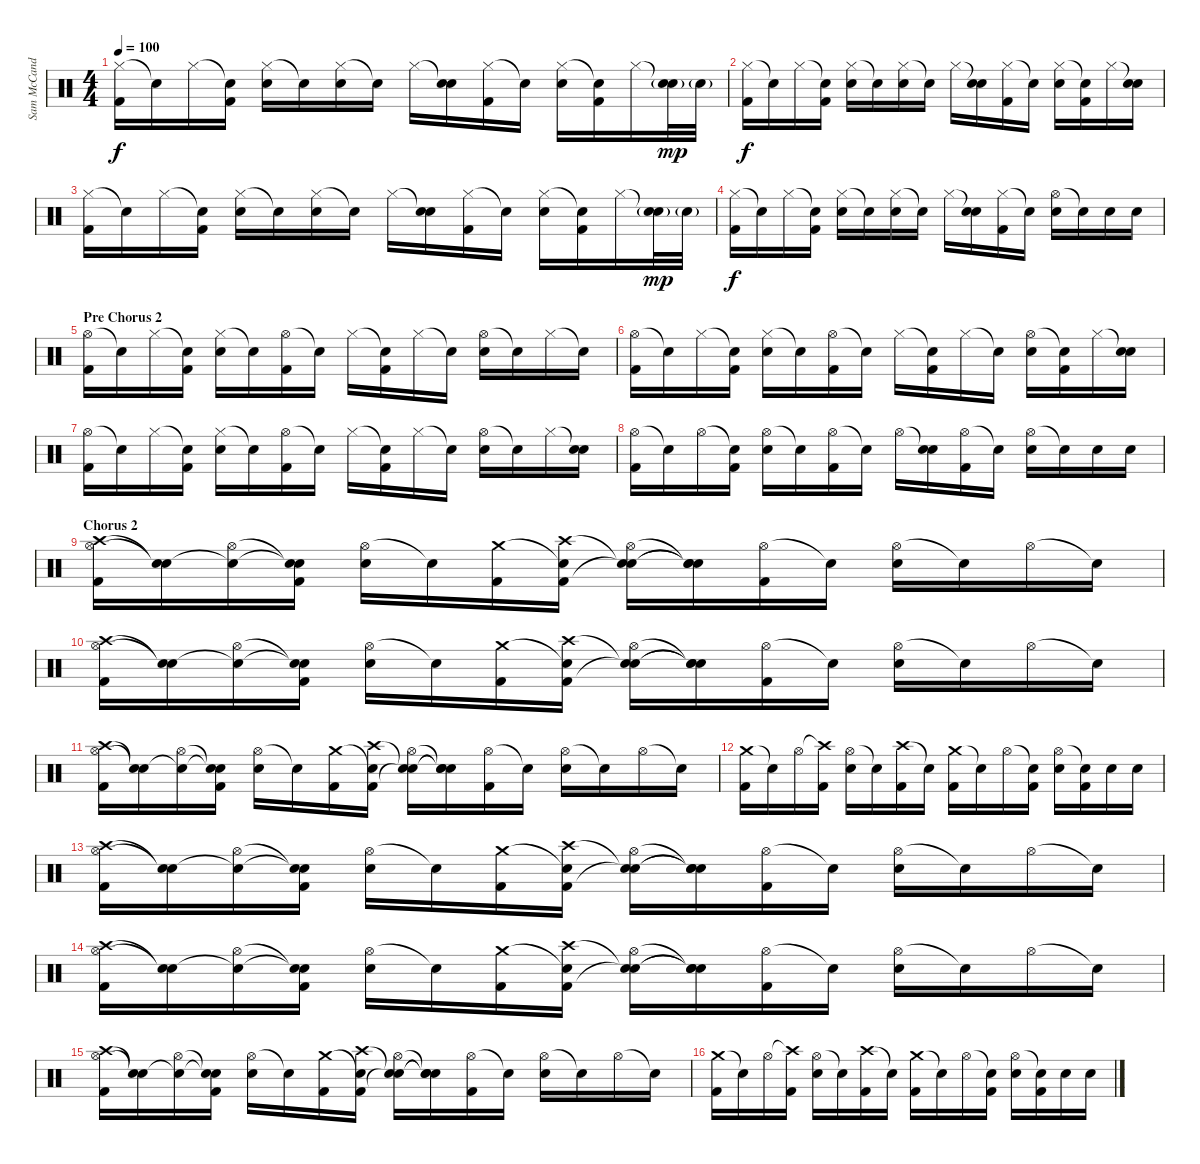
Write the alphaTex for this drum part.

\track ("Sam McCandless (Drums)" "Sam McCand") {instrument percussion}
\staff {score}
\articulation defaults
\ts (4 4)
\tempo 100
\clef neutral
\ks c
("Hi-Hat (closed)" "Kick (hit) 2").16{dy f} "Snare (hit)"{t}.16 "Hi-Hat (closed)".16 ("Snare (hit)"{t} "Kick (hit) 2").16 ("Hi-Hat (closed)" "Electric Snare (hit)").16 "Snare (hit)"{t}.16 ("Hi-Hat (closed)" "Electric Snare (hit)").16 "Snare (hit)"{t}.16 "Hi-Hat (closed)".16 ("Snare (hit)"{t} "Electric Snare (hit)").16 ("Hi-Hat (closed)" "Kick (hit) 2").16 "Snare (hit)"{t}.16 ("Hi-Hat (closed)" "Electric Snare (hit)").16 ("Snare (hit)"{t} "Kick (hit) 2").16 "Hi-Hat (closed)".16 ("Snare (hit)"{t} "Electric Snare (hit)"{g}).32{dy mp} "Electric Snare (hit)"{g}.32 |
("Hi-Hat (closed)" "Kick (hit) 2").16{dy f} "Snare (hit)"{t}.16 "Hi-Hat (closed)".16 ("Snare (hit)"{t} "Kick (hit) 2").16 ("Hi-Hat (closed)" "Electric Snare (hit)").16 "Snare (hit)"{t}.16 ("Hi-Hat (closed)" "Electric Snare (hit)").16 "Snare (hit)"{t}.16 "Hi-Hat (closed)".16 ("Snare (hit)"{t} "Electric Snare (hit)").16 ("Hi-Hat (closed)" "Kick (hit) 2").16 "Snare (hit)"{t}.16 ("Hi-Hat (closed)" "Electric Snare (hit)").16 ("Snare (hit)"{t} "Kick (hit) 2").16 "Hi-Hat (closed)".16 ("Snare (hit)"{t} "Electric Snare (hit)").16 |
("Hi-Hat (closed)" "Kick (hit) 2").16 "Snare (hit)"{t}.16 "Hi-Hat (closed)".16 ("Snare (hit)"{t} "Kick (hit) 2").16 ("Hi-Hat (closed)" "Electric Snare (hit)").16 "Snare (hit)"{t}.16 ("Hi-Hat (closed)" "Electric Snare (hit)").16 "Snare (hit)"{t}.16 "Hi-Hat (closed)".16 ("Snare (hit)"{t} "Electric Snare (hit)").16 ("Hi-Hat (closed)" "Kick (hit) 2").16 "Snare (hit)"{t}.16 ("Hi-Hat (closed)" "Electric Snare (hit)").16 ("Snare (hit)"{t} "Kick (hit) 2").16 "Hi-Hat (closed)".16 ("Snare (hit)"{t} "Electric Snare (hit)"{g}).32{dy mp} "Electric Snare (hit)"{g}.32 |
("Hi-Hat (closed)" "Kick (hit) 2").16{dy f} "Snare (hit)"{t}.16 "Hi-Hat (closed)".16 ("Snare (hit)"{t} "Kick (hit) 2").16 ("Hi-Hat (closed)" "Electric Snare (hit)").16 "Snare (hit)"{t}.16 ("Hi-Hat (closed)" "Electric Snare (hit)").16 "Snare (hit)"{t}.16 "Hi-Hat (closed)".16 ("Snare (hit)"{t} "Electric Snare (hit)").16 ("Hi-Hat (closed)" "Kick (hit) 2").16 "Snare (hit)"{t}.16 ("Hi-Hat (open)" "Electric Snare (hit)").16 "Snare (hit)"{t}.16 "Electric Snare (hit)".16 "Electric Snare (hit)".16 |
\section ("" "Pre Chorus 2")
("Hi-Hat (open)" "Kick (hit) 2").16 "Snare (hit)"{t}.16 "Hi-Hat (closed)".16 ("Snare (hit)"{t} "Kick (hit) 2").16 ("Hi-Hat (closed)" "Electric Snare (hit)").16 "Snare (hit)"{t}.16 ("Hi-Hat (open)" "Kick (hit) 2").16 "Snare (hit)"{t}.16 "Hi-Hat (closed)".16 ("Snare (hit)"{t} "Kick (hit) 2").16 "Hi-Hat (closed)".16 "Snare (hit)"{t}.16 ("Hi-Hat (open)" "Electric Snare (hit)").16 "Snare (hit)"{t}.16 "Hi-Hat (closed)".16 "Snare (hit)"{t}.16 |
("Hi-Hat (open)" "Kick (hit) 2").16 "Snare (hit)"{t}.16 "Hi-Hat (closed)".16 ("Snare (hit)"{t} "Kick (hit) 2").16 ("Hi-Hat (closed)" "Electric Snare (hit)").16 "Snare (hit)"{t}.16 ("Hi-Hat (open)" "Kick (hit) 2").16 "Snare (hit)"{t}.16 "Hi-Hat (closed)".16 ("Snare (hit)"{t} "Kick (hit) 2").16 "Hi-Hat (closed)".16 "Snare (hit)"{t}.16 ("Hi-Hat (open)" "Electric Snare (hit)").16 ("Snare (hit)"{t} "Kick (hit) 2").16 "Hi-Hat (closed)".16 ("Snare (hit)"{t} "Electric Snare (hit)").16 |
("Hi-Hat (open)" "Kick (hit) 2").16 "Snare (hit)"{t}.16 "Hi-Hat (closed)".16 ("Snare (hit)"{t} "Kick (hit) 2").16 ("Hi-Hat (closed)" "Electric Snare (hit)").16 "Snare (hit)"{t}.16 ("Hi-Hat (open)" "Kick (hit) 2").16 "Snare (hit)"{t}.16 "Hi-Hat (closed)".16 ("Snare (hit)"{t} "Kick (hit) 2").16 "Hi-Hat (closed)".16 "Snare (hit)"{t}.16 ("Hi-Hat (open)" "Electric Snare (hit)").16 "Snare (hit)"{t}.16 "Hi-Hat (closed)".16 ("Snare (hit)"{t} "Electric Snare (hit)").16 |
("Hi-Hat (open)" "Kick (hit) 2").16 "Snare (hit)"{t}.16 "Hi-Hat (open)".16 ("Snare (hit)"{t} "Kick (hit) 2").16 ("Hi-Hat (open)" "Electric Snare (hit)").16 "Snare (hit)"{t}.16 ("Hi-Hat (open)" "Kick (hit) 2").16 "Snare (hit)"{t}.16 "Hi-Hat (open)".16 ("Snare (hit)"{t} "Electric Snare (hit)").16 ("Hi-Hat (open)" "Kick (hit) 2").16 "Snare (hit)"{t}.16 ("Hi-Hat (open)" "Electric Snare (hit)").16 "Snare (hit)"{t}.16 "Electric Snare (hit)".16 "Electric Snare (hit)".16 |
\section ("" "Chorus 2")
("Hi-Hat (open)" "Crash high (hit)" "Kick (hit) 2").16 ("Snare (hit)"{t} "Snare (hit)"{t}).16 ("Hi-Hat (open)" "Snare (hit)"{t}).16 ("Snare (hit)"{t} "Snare (hit)"{t} "Kick (hit) 2").16 ("Hi-Hat (open)" "Electric Snare (hit)").16 "Snare (hit)"{t}.16 ("Crash medium (hit)" "Kick (hit) 2").16 ("Snare (hit)"{t} "Crash high (hit)" "Kick (hit) 2").16 ("Hi-Hat (open)" "Snare (hit)"{t} "Snare (hit)"{t}).16 ("Snare (hit)"{t} "Snare (hit)"{t} "Snare (hit)"{t}).16 ("Hi-Hat (open)" "Kick (hit) 2").16 "Snare (hit)"{t}.16 ("Hi-Hat (open)" "Electric Snare (hit)").16 "Snare (hit)"{t}.16 "Hi-Hat (open)".16 "Snare (hit)"{t}.16 |
("Hi-Hat (open)" "Crash high (hit)" "Kick (hit) 2").16 ("Snare (hit)"{t} "Snare (hit)"{t}).16 ("Hi-Hat (open)" "Snare (hit)"{t}).16 ("Snare (hit)"{t} "Snare (hit)"{t} "Kick (hit) 2").16 ("Hi-Hat (open)" "Electric Snare (hit)").16 "Snare (hit)"{t}.16 ("Crash medium (hit)" "Kick (hit) 2").16 ("Snare (hit)"{t} "Crash high (hit)" "Kick (hit) 2").16 ("Hi-Hat (open)" "Snare (hit)"{t} "Snare (hit)"{t}).16 ("Snare (hit)"{t} "Snare (hit)"{t} "Snare (hit)"{t}).16 ("Hi-Hat (open)" "Kick (hit) 2").16 "Snare (hit)"{t}.16 ("Hi-Hat (open)" "Electric Snare (hit)").16 "Snare (hit)"{t}.16 "Hi-Hat (open)".16 "Snare (hit)"{t}.16 |
("Hi-Hat (open)" "Crash high (hit)" "Kick (hit) 2").16 ("Snare (hit)"{t} "Snare (hit)"{t}).16 ("Hi-Hat (open)" "Snare (hit)"{t}).16 ("Snare (hit)"{t} "Snare (hit)"{t} "Kick (hit) 2").16 ("Hi-Hat (open)" "Electric Snare (hit)").16 "Snare (hit)"{t}.16 ("Crash medium (hit)" "Kick (hit) 2").16 ("Snare (hit)"{t} "Crash high (hit)" "Kick (hit) 2").16 ("Hi-Hat (open)" "Snare (hit)"{t} "Snare (hit)"{t}).16 ("Snare (hit)"{t} "Snare (hit)"{t} "Snare (hit)"{t}).16 ("Hi-Hat (open)" "Kick (hit) 2").16 "Snare (hit)"{t}.16 ("Hi-Hat (open)" "Electric Snare (hit)").16 "Snare (hit)"{t}.16 "Hi-Hat (open)".16 "Snare (hit)"{t}.16 |
("Crash medium (hit)" "Kick (hit) 2").16 "Snare (hit)"{t}.16 "Hi-Hat (open)".16 ("Crash high (hit)"{t} "Kick (hit) 2").16 ("Hi-Hat (open)" "Electric Snare (hit)").16 "Snare (hit)"{t}.16 ("Crash high (hit)" "Kick (hit) 2").16 "Snare (hit)"{t}.16 ("Crash medium (hit)" "Kick (hit) 2").16 "Snare (hit)"{t}.16 "Hi-Hat (open)".16 ("Snare (hit)"{t} "Kick (hit) 2").16 ("Hi-Hat (open)" "Electric Snare (hit)").16 ("Snare (hit)"{t} "Kick (hit) 2").16 "Electric Snare (hit)".16 "Electric Snare (hit)".16 |
("Hi-Hat (open)" "Crash high (hit)" "Kick (hit) 2").16 ("Snare (hit)"{t} "Snare (hit)"{t}).16 ("Hi-Hat (open)" "Snare (hit)"{t}).16 ("Snare (hit)"{t} "Snare (hit)"{t} "Kick (hit) 2").16 ("Hi-Hat (open)" "Electric Snare (hit)").16 "Snare (hit)"{t}.16 ("Crash medium (hit)" "Kick (hit) 2").16 ("Snare (hit)"{t} "Crash high (hit)" "Kick (hit) 2").16 ("Hi-Hat (open)" "Snare (hit)"{t} "Snare (hit)"{t}).16 ("Snare (hit)"{t} "Snare (hit)"{t} "Snare (hit)"{t}).16 ("Hi-Hat (open)" "Kick (hit) 2").16 "Snare (hit)"{t}.16 ("Hi-Hat (open)" "Electric Snare (hit)").16 "Snare (hit)"{t}.16 "Hi-Hat (open)".16 "Snare (hit)"{t}.16 |
("Hi-Hat (open)" "Crash high (hit)" "Kick (hit) 2").16 ("Snare (hit)"{t} "Snare (hit)"{t}).16 ("Hi-Hat (open)" "Snare (hit)"{t}).16 ("Snare (hit)"{t} "Snare (hit)"{t} "Kick (hit) 2").16 ("Hi-Hat (open)" "Electric Snare (hit)").16 "Snare (hit)"{t}.16 ("Crash medium (hit)" "Kick (hit) 2").16 ("Snare (hit)"{t} "Crash high (hit)" "Kick (hit) 2").16 ("Hi-Hat (open)" "Snare (hit)"{t} "Snare (hit)"{t}).16 ("Snare (hit)"{t} "Snare (hit)"{t} "Snare (hit)"{t}).16 ("Hi-Hat (open)" "Kick (hit) 2").16 "Snare (hit)"{t}.16 ("Hi-Hat (open)" "Electric Snare (hit)").16 "Snare (hit)"{t}.16 "Hi-Hat (open)".16 "Snare (hit)"{t}.16 |
("Hi-Hat (open)" "Crash high (hit)" "Kick (hit) 2").16 ("Snare (hit)"{t} "Snare (hit)"{t}).16 ("Hi-Hat (open)" "Snare (hit)"{t}).16 ("Snare (hit)"{t} "Snare (hit)"{t} "Kick (hit) 2").16 ("Hi-Hat (open)" "Electric Snare (hit)").16 "Snare (hit)"{t}.16 ("Crash medium (hit)" "Kick (hit) 2").16 ("Snare (hit)"{t} "Crash high (hit)" "Kick (hit) 2").16 ("Hi-Hat (open)" "Snare (hit)"{t} "Snare (hit)"{t}).16 ("Snare (hit)"{t} "Snare (hit)"{t} "Snare (hit)"{t}).16 ("Hi-Hat (open)" "Kick (hit) 2").16 "Snare (hit)"{t}.16 ("Hi-Hat (open)" "Electric Snare (hit)").16 "Snare (hit)"{t}.16 "Hi-Hat (open)".16 "Snare (hit)"{t}.16 |
("Crash medium (hit)" "Kick (hit) 2").16 "Snare (hit)"{t}.16 "Hi-Hat (open)".16 ("Crash high (hit)"{t} "Kick (hit) 2").16 ("Hi-Hat (open)" "Electric Snare (hit)").16 "Snare (hit)"{t}.16 ("Crash high (hit)" "Kick (hit) 2").16 "Snare (hit)"{t}.16 ("Crash medium (hit)" "Kick (hit) 2").16 "Snare (hit)"{t}.16 "Hi-Hat (open)".16 ("Snare (hit)"{t} "Kick (hit) 2").16 ("Hi-Hat (open)" "Electric Snare (hit)").16 ("Snare (hit)"{t} "Kick (hit) 2").16 "Electric Snare (hit)".16 "Electric Snare (hit)".16
